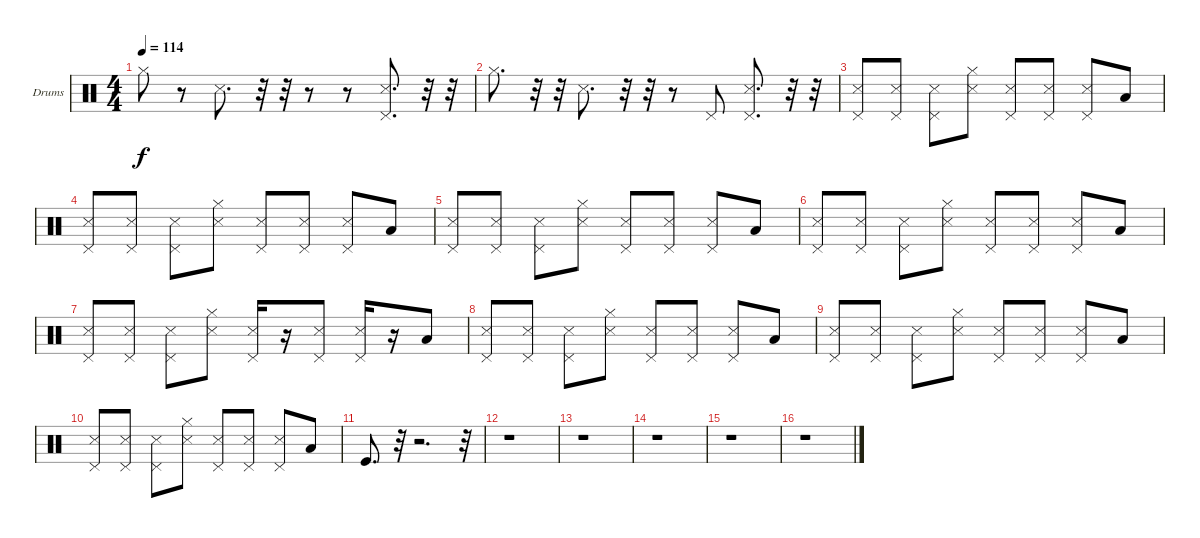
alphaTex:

\bracketExtendMode groupsimilarinstruments
\firstSystemTrackNameOrientation horizontal
\otherSystemsTrackNameOrientation horizontal
\track ("Drumkit" "Drums") {instrument percussion}
\staff {score}
\articulation defaults
\ts (4 4)
\tempo 114
\clef neutral
\ks c "Hi-Hat (closed)".8{dy f}
r.8 "Snare (side stick) 3".8{d} r.32 r.32 r.8 r.8 ("Snare (side stick) 3" "Pedal Hi-Hat (hit)").8{d} r.32 r.32 |
"Hi-Hat (closed)".8{d} r.32 r.32 "Snare (side stick) 3".8{d} r.32 r.32 r.8 "Pedal Hi-Hat (hit)".8 ("Snare (side stick) 3" "Pedal Hi-Hat (hit)").8{d} r.32 r.32 |
("Snare (side stick) 3" "Pedal Hi-Hat (hit)").8 ("Snare (side stick) 3" "Pedal Hi-Hat (hit)").8 ("Snare (side stick) 3" "Pedal Hi-Hat (hit)").8 ("Snare (side stick) 3" "Hi-Hat (closed)").8 ("Snare (side stick) 3" "Pedal Hi-Hat (hit)").8 ("Snare (side stick) 3" "Pedal Hi-Hat (hit)").8 ("Snare (side stick) 3" "Pedal Hi-Hat (hit)").8 "Low Tom (hit)".8 |
("Snare (side stick) 3" "Pedal Hi-Hat (hit)").8 ("Snare (side stick) 3" "Pedal Hi-Hat (hit)").8 ("Snare (side stick) 3" "Pedal Hi-Hat (hit)").8 ("Snare (side stick) 3" "Hi-Hat (closed)").8 ("Snare (side stick) 3" "Pedal Hi-Hat (hit)").8 ("Snare (side stick) 3" "Pedal Hi-Hat (hit)").8 ("Snare (side stick) 3" "Pedal Hi-Hat (hit)").8 "Low Tom (hit)".8 |
("Snare (side stick) 3" "Pedal Hi-Hat (hit)").8 ("Snare (side stick) 3" "Pedal Hi-Hat (hit)").8 ("Snare (side stick) 3" "Pedal Hi-Hat (hit)").8 ("Snare (side stick) 3" "Hi-Hat (closed)").8 ("Snare (side stick) 3" "Pedal Hi-Hat (hit)").8 ("Snare (side stick) 3" "Pedal Hi-Hat (hit)").8 ("Snare (side stick) 3" "Pedal Hi-Hat (hit)").8 "Low Tom (hit)".8 |
("Snare (side stick) 3" "Pedal Hi-Hat (hit)").8 ("Snare (side stick) 3" "Pedal Hi-Hat (hit)").8 ("Snare (side stick) 3" "Pedal Hi-Hat (hit)").8 ("Snare (side stick) 3" "Hi-Hat (closed)").8 ("Snare (side stick) 3" "Pedal Hi-Hat (hit)").8 ("Snare (side stick) 3" "Pedal Hi-Hat (hit)").8 ("Snare (side stick) 3" "Pedal Hi-Hat (hit)").8 "Low Tom (hit)".8 |
("Snare (side stick) 3" "Pedal Hi-Hat (hit)").8 ("Snare (side stick) 3" "Pedal Hi-Hat (hit)").8 ("Snare (side stick) 3" "Pedal Hi-Hat (hit)").8 ("Snare (side stick) 3" "Hi-Hat (closed)").8 ("Snare (side stick) 3" "Pedal Hi-Hat (hit)").16 r.16 ("Snare (side stick) 3" "Pedal Hi-Hat (hit)").8 ("Snare (side stick) 3" "Pedal Hi-Hat (hit)").16 r.16 "Low Tom (hit)".8 |
("Snare (side stick) 3" "Pedal Hi-Hat (hit)").8 ("Snare (side stick) 3" "Pedal Hi-Hat (hit)").8 ("Snare (side stick) 3" "Pedal Hi-Hat (hit)").8 ("Snare (side stick) 3" "Hi-Hat (closed)").8 ("Snare (side stick) 3" "Pedal Hi-Hat (hit)").8 ("Snare (side stick) 3" "Pedal Hi-Hat (hit)").8 ("Snare (side stick) 3" "Pedal Hi-Hat (hit)").8 "Low Tom (hit)".8 |
("Snare (side stick) 3" "Pedal Hi-Hat (hit)").8 ("Snare (side stick) 3" "Pedal Hi-Hat (hit)").8 ("Snare (side stick) 3" "Pedal Hi-Hat (hit)").8 ("Snare (side stick) 3" "Hi-Hat (closed)").8 ("Snare (side stick) 3" "Pedal Hi-Hat (hit)").8 ("Snare (side stick) 3" "Pedal Hi-Hat (hit)").8 ("Snare (side stick) 3" "Pedal Hi-Hat (hit)").8 "Low Tom (hit)".8 |
("Snare (side stick) 3" "Pedal Hi-Hat (hit)").8 ("Snare (side stick) 3" "Pedal Hi-Hat (hit)").8 ("Snare (side stick) 3" "Pedal Hi-Hat (hit)").8 ("Snare (side stick) 3" "Hi-Hat (closed)").8 ("Snare (side stick) 3" "Pedal Hi-Hat (hit)").8 ("Snare (side stick) 3" "Pedal Hi-Hat (hit)").8 ("Snare (side stick) 3" "Pedal Hi-Hat (hit)").8 "Low Tom (hit)".8 |
"Kick (hit)".8{d} r.32 r.2{d} r.32 |
r.1 |
r.1 |
r.1 |
r.1 |
r.1
